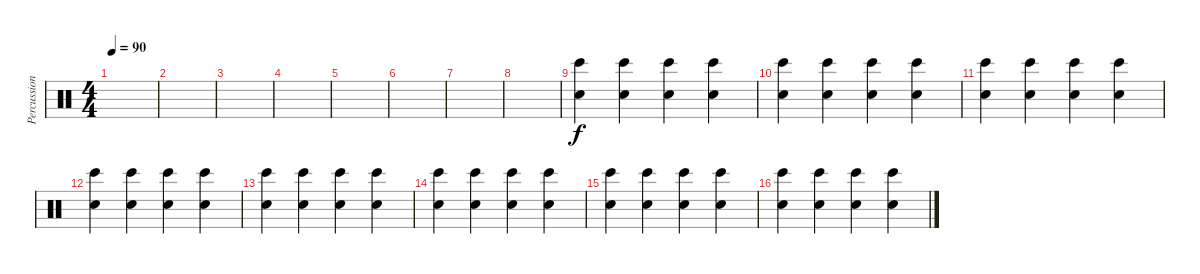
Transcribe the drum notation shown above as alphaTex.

\track ("Percussion" "Percussion") {instrument percussion}
\staff {score}
\articulation defaults
\ts (4 4)
\tempo 90
\clef neutral
\ks c
|
|
|
|
|
|
|
|
("Bongo High (hit)" "Hand Clap (hit)").4 ("Bongo High (hit)" "Hand Clap (hit)").4 ("Hand Clap (hit)" "Bongo High (hit)").4 ("Hand Clap (hit)" "Bongo High (hit)").4 |
("Hand Clap (hit)" "Bongo High (hit)").4 ("Bongo High (hit)" "Hand Clap (hit)").4 ("Hand Clap (hit)" "Bongo High (hit)").4 ("Hand Clap (hit)" "Bongo High (hit)").4 |
("Hand Clap (hit)" "Bongo High (hit)").4 ("Hand Clap (hit)" "Bongo High (hit)").4 ("Hand Clap (hit)" "Bongo High (hit)").4 ("Hand Clap (hit)" "Bongo High (hit)").4 |
("Hand Clap (hit)" "Bongo High (hit)").4 ("Hand Clap (hit)" "Bongo High (hit)").4 ("Hand Clap (hit)" "Bongo High (hit)").4 ("Hand Clap (hit)" "Bongo High (hit)").4 |
("Hand Clap (hit)" "Bongo High (hit)").4 ("Hand Clap (hit)" "Bongo High (hit)").4 ("Hand Clap (hit)" "Bongo High (hit)").4 ("Hand Clap (hit)" "Bongo High (hit)").4 |
("Hand Clap (hit)" "Bongo High (hit)").4 ("Hand Clap (hit)" "Bongo High (hit)").4 ("Hand Clap (hit)" "Bongo High (hit)").4 ("Hand Clap (hit)" "Bongo High (hit)").4 |
("Hand Clap (hit)" "Bongo High (hit)").4 ("Hand Clap (hit)" "Bongo High (hit)").4 ("Hand Clap (hit)" "Bongo High (hit)").4 ("Hand Clap (hit)" "Bongo High (hit)").4 |
("Hand Clap (hit)" "Bongo High (hit)").4 ("Hand Clap (hit)" "Bongo High (hit)").4 ("Hand Clap (hit)" "Bongo High (hit)").4 ("Hand Clap (hit)" "Bongo High (hit)").4
